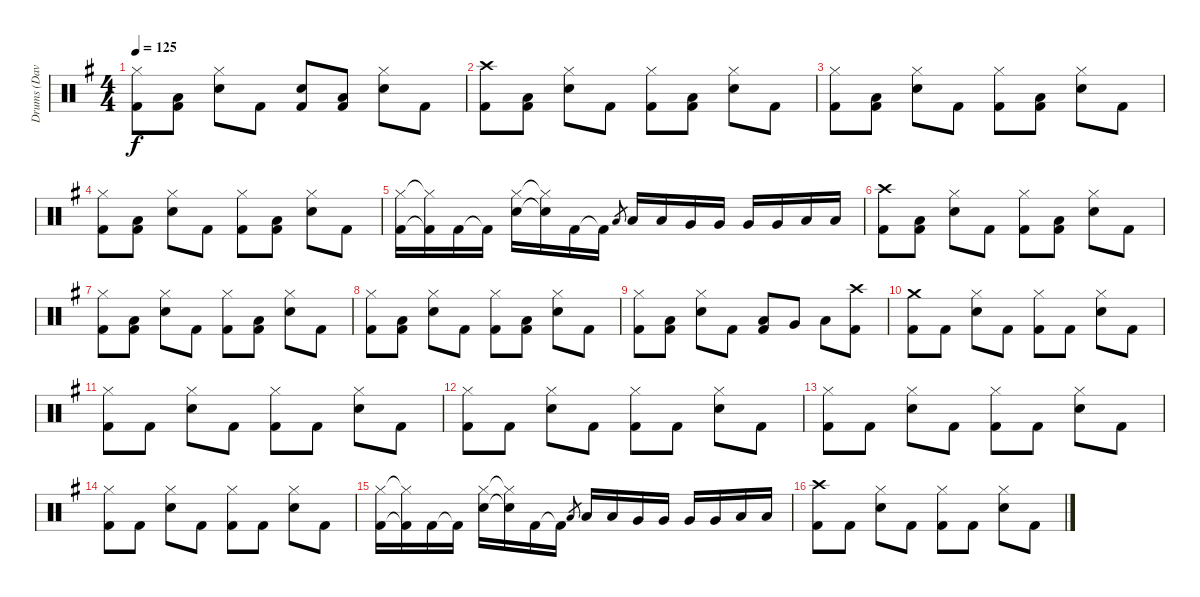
\track ("Drums (Dave Holland)" "Drums (Dav") {instrument percussion}
\staff {score}
\articulation defaults
\ts (4 4)
\tempo 125
\clef neutral
\ks g
("Hi-Hat (closed)" "Kick (hit) 2").8{dy f} ("Low Tom (hit)" "Kick (hit) 2").8 ("Hi-Hat (closed)" "Snare (hit) 2").8 "Kick (hit) 2".8 ("Snare (hit) 2" "Kick (hit) 2").8 ("Low Tom (hit)" "Kick (hit) 2").8 ("Hi-Hat (closed)" "Snare (hit) 2").8 "Kick (hit) 2".8 |
("Crash high (hit)" "Kick (hit) 2").8 ("Low Tom (hit)" "Kick (hit) 2").8 ("Hi-Hat (closed)" "Snare (hit) 2").8 "Kick (hit) 2".8 ("Hi-Hat (closed)" "Kick (hit) 2").8 ("Low Tom (hit)" "Kick (hit) 2").8 ("Hi-Hat (closed)" "Snare (hit) 2").8 "Kick (hit) 2".8 |
("Hi-Hat (closed)" "Kick (hit) 2").8 ("Low Tom (hit)" "Kick (hit) 2").8 ("Hi-Hat (closed)" "Snare (hit) 2").8 "Kick (hit) 2".8 ("Hi-Hat (closed)" "Kick (hit) 2").8 ("Low Tom (hit)" "Kick (hit) 2").8 ("Hi-Hat (closed)" "Snare (hit) 2").8 "Kick (hit) 2".8 |
("Hi-Hat (closed)" "Kick (hit) 2").8 ("Low Tom (hit)" "Kick (hit) 2").8 ("Hi-Hat (closed)" "Snare (hit) 2").8 "Kick (hit) 2".8 ("Hi-Hat (closed)" "Kick (hit) 2").8 ("Low Tom (hit)" "Kick (hit) 2").8 ("Hi-Hat (closed)" "Snare (hit) 2").8 "Kick (hit) 2".8 |
("Hi-Hat (closed)" "Kick (hit) 2").16 ("Hi-Hat (closed)"{t} "Kick (hit) 2"{t}).16 "Kick (hit) 2".16 "Kick (hit) 2"{t}.16 ("Hi-Hat (closed)" "Snare (hit) 2").16 ("Hi-Hat (closed)"{t} "Snare (hit) 2"{t}).16 "Kick (hit) 2".16 "Kick (hit) 2"{t}.16 "Low Tom (hit)".8{gr} "Low Tom (hit)".16 "Low Tom (hit)".16 "Very Low Tom (hit)".16 "Very Low Tom (hit)".16 "Very Low Tom (hit)".16 "Very Low Tom (hit)".16 "Low Floor Tom (hit)".16 "Low Floor Tom (hit)".16 |
("Crash high (hit)" "Kick (hit) 2").8 ("Low Tom (hit)" "Kick (hit) 2").8 ("Hi-Hat (closed)" "Snare (hit) 2").8 "Kick (hit) 2".8 ("Hi-Hat (closed)" "Kick (hit) 2").8 ("Low Tom (hit)" "Kick (hit) 2").8 ("Hi-Hat (closed)" "Snare (hit) 2").8 "Kick (hit) 2".8 |
("Hi-Hat (closed)" "Kick (hit) 2").8 ("Low Tom (hit)" "Kick (hit) 2").8 ("Hi-Hat (closed)" "Snare (hit) 2").8 "Kick (hit) 2".8 ("Hi-Hat (closed)" "Kick (hit) 2").8 ("Low Tom (hit)" "Kick (hit) 2").8 ("Hi-Hat (closed)" "Snare (hit) 2").8 "Kick (hit) 2".8 |
("Hi-Hat (closed)" "Kick (hit) 2").8 ("Low Tom (hit)" "Kick (hit) 2").8 ("Hi-Hat (closed)" "Snare (hit) 2").8 "Kick (hit) 2".8 ("Hi-Hat (closed)" "Kick (hit) 2").8 ("Low Tom (hit)" "Kick (hit) 2").8 ("Hi-Hat (closed)" "Snare (hit) 2").8 "Kick (hit) 2".8 |
("Hi-Hat (closed)" "Kick (hit) 2").8 ("Low Tom (hit)" "Kick (hit) 2").8 ("Hi-Hat (closed)" "Snare (hit) 2").8 "Kick (hit) 2".8 ("Low Tom (hit)" "Kick (hit) 2").8 "Very Low Tom (hit)".8 "Low Floor Tom (hit)".8 ("Crash high (hit)" "Kick (hit) 2").8 |
("Crash medium (hit)" "Kick (hit) 2").8 "Kick (hit) 2".8 ("Hi-Hat (closed)" "Snare (hit) 2").8 "Kick (hit) 2".8 ("Hi-Hat (closed)" "Kick (hit) 2").8 "Kick (hit) 2".8 ("Hi-Hat (closed)" "Snare (hit) 2").8 "Kick (hit) 2".8 |
("Hi-Hat (closed)" "Kick (hit) 2").8 "Kick (hit) 2".8 ("Hi-Hat (closed)" "Snare (hit) 2").8 "Kick (hit) 2".8 ("Hi-Hat (closed)" "Kick (hit) 2").8 "Kick (hit) 2".8 ("Hi-Hat (closed)" "Snare (hit) 2").8 "Kick (hit) 2".8 |
("Hi-Hat (closed)" "Kick (hit) 2").8 "Kick (hit) 2".8 ("Hi-Hat (closed)" "Snare (hit) 2").8 "Kick (hit) 2".8 ("Hi-Hat (closed)" "Kick (hit) 2").8 "Kick (hit) 2".8 ("Hi-Hat (closed)" "Snare (hit) 2").8 "Kick (hit) 2".8 |
("Hi-Hat (closed)" "Kick (hit) 2").8 "Kick (hit) 2".8 ("Hi-Hat (closed)" "Snare (hit) 2").8 "Kick (hit) 2".8 ("Hi-Hat (closed)" "Kick (hit) 2").8 "Kick (hit) 2".8 ("Hi-Hat (closed)" "Snare (hit) 2").8 "Kick (hit) 2".8 |
("Hi-Hat (closed)" "Kick (hit) 2").8 "Kick (hit) 2".8 ("Hi-Hat (closed)" "Snare (hit) 2").8 "Kick (hit) 2".8 ("Hi-Hat (closed)" "Kick (hit) 2").8 "Kick (hit) 2".8 ("Hi-Hat (closed)" "Snare (hit) 2").8 "Kick (hit) 2".8 |
("Hi-Hat (closed)" "Kick (hit) 2").16 ("Hi-Hat (closed)"{t} "Kick (hit) 2"{t}).16 "Kick (hit) 2".16 "Kick (hit) 2"{t}.16 ("Hi-Hat (closed)" "Snare (hit) 2").16 ("Hi-Hat (closed)"{t} "Snare (hit) 2"{t}).16 "Kick (hit) 2".16 "Kick (hit) 2"{t}.16 "Low Tom (hit)".8{gr} "Low Tom (hit)".16 "Low Tom (hit)".16 "Very Low Tom (hit)".16 "Very Low Tom (hit)".16 "Very Low Tom (hit)".16 "Very Low Tom (hit)".16 "Low Floor Tom (hit)".16 "Low Floor Tom (hit)".16 |
("Crash high (hit)" "Kick (hit) 2").8 "Kick (hit) 2".8 ("Hi-Hat (closed)" "Snare (hit) 2").8 "Kick (hit) 2".8 ("Hi-Hat (closed)" "Kick (hit) 2").8 "Kick (hit) 2".8 ("Hi-Hat (closed)" "Snare (hit) 2").8 "Kick (hit) 2".8
